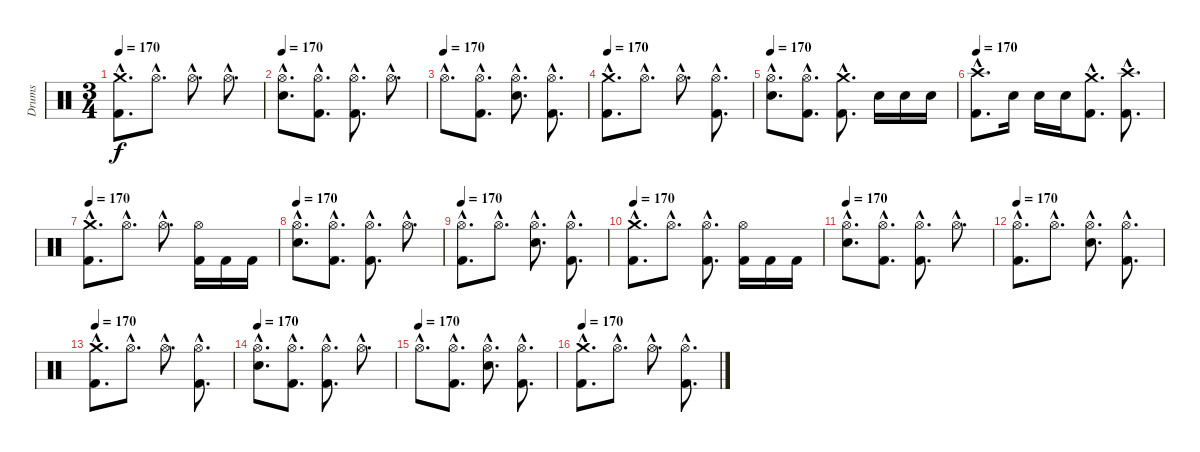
\track ("Drums" "Drums") {instrument percussion}
\staff {score}
\articulation defaults
\ts (3 4)
\tempo 170
\clef neutral
\ks c
("Crash medium (hit)"{hac} "Kick (hit) 2"{hac}).8{d dy f} "Hi-Hat (open)"{hac}.8{d} "Hi-Hat (open)"{hac}.8{d} "Hi-Hat (open)"{hac}.8{d} |
\tempo 170
("Hi-Hat (open)"{hac} "Snare (hit) 2"{hac}).8{d} ("Hi-Hat (open)"{hac} "Kick (hit) 2"{hac}).8{d} ("Hi-Hat (open)"{hac} "Kick (hit) 2"{hac}).8{d} "Hi-Hat (open)"{hac}.8{d} |
\tempo (170)
"Hi-Hat (open)"{hac}.8{d} ("Hi-Hat (open)"{hac} "Kick (hit) 2"{hac}).8{d} ("Hi-Hat (open)"{hac} "Snare (hit) 2"{hac}).8{d} ("Hi-Hat (open)"{hac} "Kick (hit) 2"{hac}).8{d} |
\tempo 170
("Crash medium (hit)"{hac} "Kick (hit) 2"{hac}).8{d} "Hi-Hat (open)"{hac}.8{d} "Hi-Hat (open)"{hac}.8{d} ("Hi-Hat (open)"{hac} "Kick (hit) 2"{hac}).8{d} |
\tempo 170
("Hi-Hat (open)"{hac} "Snare (hit) 2"{hac}).8{d} ("Hi-Hat (open)"{hac} "Kick (hit) 2"{hac}).8{d} ("Crash medium (hit)"{hac} "Kick (hit) 2"{hac}).8{d} "Snare (hit) 2".16 "Snare (hit) 2".16 "Snare (hit) 2".16 |
\tempo 170
("Crash high (hit)"{hac} "Kick (hit) 2"{hac}).8{d} "Snare (hit) 2".16 "Snare (hit) 2".16 "Snare (hit) 2".16 ("Crash medium (hit)"{hac} "Kick (hit) 2"{hac}).8{d} ("Crash high (hit)"{hac} "Kick (hit) 2"{hac}).8{d} |
\tempo 170
("Crash medium (hit)"{hac} "Kick (hit) 2"{hac}).8{d} "Hi-Hat (open)"{hac}.8{d} "Hi-Hat (open)"{hac}.8{d} ("Hi-Hat (open)" "Kick (hit) 2").16 "Kick (hit) 2".16 "Kick (hit) 2".16 |
\tempo 170
("Hi-Hat (open)"{hac} "Snare (hit) 2"{hac}).8{d} ("Hi-Hat (open)"{hac} "Kick (hit) 2"{hac}).8{d} ("Hi-Hat (open)"{hac} "Kick (hit) 2"{hac}).8{d} "Hi-Hat (open)"{hac}.8{d} |
\tempo 170
("Hi-Hat (open)"{hac} "Kick (hit) 2"{hac}).8{d} "Hi-Hat (open)"{hac}.8{d} ("Hi-Hat (open)"{hac} "Snare (hit) 2"{hac}).8{d} ("Hi-Hat (open)"{hac} "Kick (hit) 2"{hac}).8{d} |
\tempo 170
("Crash medium (hit)"{hac} "Kick (hit) 2"{hac}).8{d} "Hi-Hat (open)"{hac}.8{d} ("Hi-Hat (open)"{hac} "Kick (hit) 2"{hac}).8{d} ("Hi-Hat (open)" "Kick (hit) 2").16 "Kick (hit) 2".16 "Kick (hit) 2".16 |
\tempo 170
("Hi-Hat (open)"{hac} "Snare (hit) 2"{hac}).8{d} ("Hi-Hat (open)"{hac} "Kick (hit) 2"{hac}).8{d} ("Hi-Hat (open)"{hac} "Kick (hit) 2"{hac}).8{d} "Hi-Hat (open)"{hac}.8{d} |
\tempo 170
("Hi-Hat (open)"{hac} "Kick (hit) 2"{hac}).8{d} "Hi-Hat (open)"{hac}.8{d} ("Hi-Hat (open)"{hac} "Snare (hit) 2"{hac}).8{d} ("Hi-Hat (open)"{hac} "Kick (hit) 2"{hac}).8{d} |
\tempo 170
("Crash medium (hit)"{hac} "Kick (hit) 2"{hac}).8{d} "Hi-Hat (open)"{hac}.8{d} "Hi-Hat (open)"{hac}.8{d} ("Hi-Hat (open)"{hac} "Kick (hit) 2"{hac}).8{d} |
\tempo 170
("Hi-Hat (open)"{hac} "Snare (hit) 2"{hac}).8{d} ("Hi-Hat (open)"{hac} "Kick (hit) 2"{hac}).8{d} ("Hi-Hat (open)"{hac} "Kick (hit) 2"{hac}).8{d} "Hi-Hat (open)"{hac}.8{d} |
\tempo (170)
"Hi-Hat (open)"{hac}.8{d} ("Hi-Hat (open)"{hac} "Kick (hit) 2"{hac}).8{d} ("Hi-Hat (open)"{hac} "Snare (hit) 2"{hac}).8{d} ("Hi-Hat (open)"{hac} "Kick (hit) 2"{hac}).8{d} |
\tempo 170
("Crash medium (hit)"{hac} "Kick (hit) 2"{hac}).8{d} "Hi-Hat (open)"{hac}.8{d} "Hi-Hat (open)"{hac}.8{d} ("Hi-Hat (open)"{hac} "Kick (hit) 2"{hac}).8{d}
